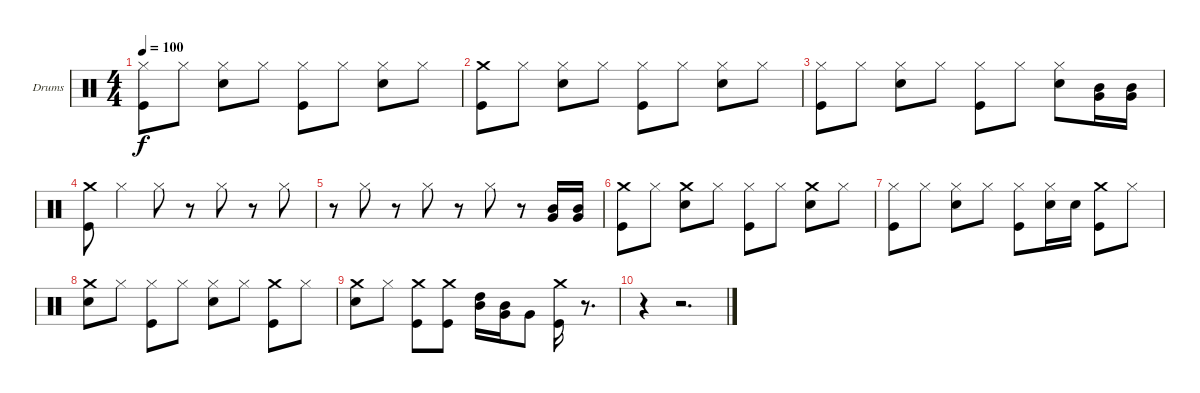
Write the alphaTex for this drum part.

\bracketExtendMode groupsimilarinstruments
\firstSystemTrackNameOrientation horizontal
\otherSystemsTrackNameOrientation horizontal
\track ("Drumkit" "Drums") {instrument percussion}
\staff {score}
\articulation defaults
\ts (4 4)
\tempo 100
\clef neutral
\ks c
("Kick (hit)" "Hi-Hat (closed)").8{dy f} "Hi-Hat (closed)".8 ("Snare (hit) 2" "Hi-Hat (closed)").8 "Hi-Hat (closed)".8 ("Kick (hit)" "Hi-Hat (closed)").8 "Hi-Hat (closed)".8 ("Snare (hit) 2" "Hi-Hat (closed)").8 "Hi-Hat (closed)".8 |
("Kick (hit)" "Crash medium (hit)").8 "Hi-Hat (closed)".8 ("Snare (hit) 2" "Hi-Hat (closed)").8 "Hi-Hat (closed)".8 ("Kick (hit)" "Hi-Hat (closed)").8 "Hi-Hat (closed)".8 ("Snare (hit) 2" "Hi-Hat (closed)").8 "Hi-Hat (closed)".8 |
("Kick (hit)" "Hi-Hat (closed)").8 "Hi-Hat (closed)".8 ("Snare (hit) 2" "Hi-Hat (closed)").8 "Hi-Hat (closed)".8 ("Kick (hit)" "Hi-Hat (closed)").8 "Hi-Hat (closed)".8 ("Snare (hit) 2" "Hi-Hat (closed)").8 ("Very Low Tom (hit)" "Mid Tom (hit)").16 ("Very Low Tom (hit)" "Mid Tom (hit)").16 |
("Kick (hit)" "Crash medium (hit)").8 "Hi-Hat (closed)".4 "Hi-Hat (closed)".8 r.8 "Hi-Hat (closed)".8 r.8 "Hi-Hat (closed)".8 |
r.8 "Hi-Hat (closed)".8 r.8 "Hi-Hat (closed)".8 r.8 "Hi-Hat (closed)".8 r.8 ("Mid Tom (hit)" "Very Low Tom (hit)").16 ("Mid Tom (hit)" "Very Low Tom (hit)").16 |
("Kick (hit)" "Crash medium (hit)").8 "Hi-Hat (closed)".8 ("Snare (hit) 2" "Crash medium (hit)").8 "Hi-Hat (closed)".8 ("Kick (hit)" "Hi-Hat (closed)").8 "Hi-Hat (closed)".8 ("Snare (hit) 2" "Crash medium (hit)").8 "Hi-Hat (closed)".8 |
("Kick (hit)" "Hi-Hat (closed)").8 "Hi-Hat (closed)".8 ("Snare (hit) 2" "Hi-Hat (closed)").8 "Hi-Hat (closed)".8 ("Kick (hit)" "Hi-Hat (closed)").8 ("Snare (hit) 2" "Hi-Hat (closed)").16 "Snare (hit) 2".16 ("Kick (hit)" "Crash medium (hit)").8 "Hi-Hat (closed)".8 |
("Snare (hit) 2" "Crash medium (hit)").8 "Hi-Hat (closed)".8 ("Kick (hit)" "Hi-Hat (closed)").8 "Hi-Hat (closed)".8 ("Snare (hit) 2" "Hi-Hat (closed)").8 "Hi-Hat (closed)".8 ("Kick (hit)" "Crash medium (hit)").8 "Hi-Hat (closed)".8 |
("Snare (hit) 2" "Crash medium (hit)").8 "Hi-Hat (closed)".8 ("Kick (hit)" "Crash medium (hit)").8 ("Kick (hit)" "Crash medium (hit)").8 ("High Tom (hit)" "Mid Tom (hit)").16 ("Mid Tom (hit)" "Very Low Tom (hit)").16 "Very Low Tom (hit)".8 ("Kick (hit)" "Crash medium (hit)").16 r.8{d} |
r.4 r.2{d}
